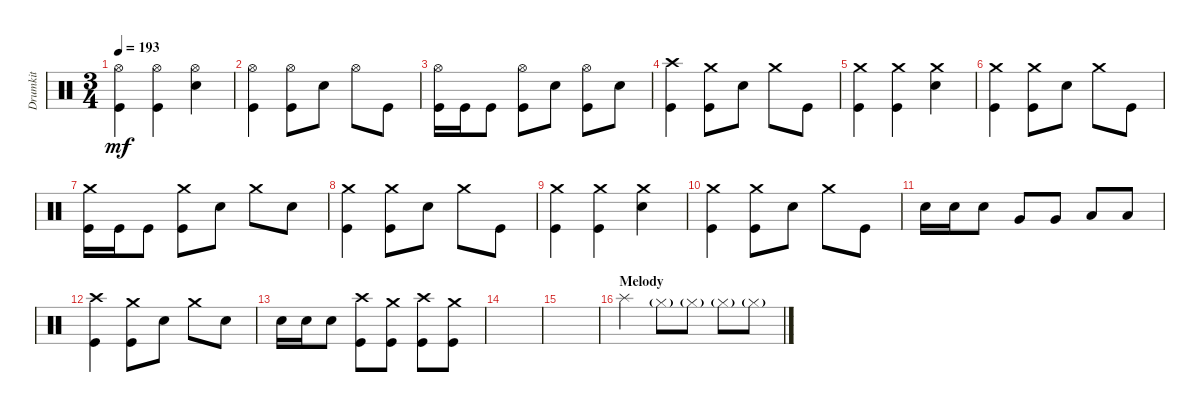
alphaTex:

\track ("Drumkit" "Drumkit") {instrument percussion}
\staff {score}
\articulation defaults
\ts (3 4)
\tempo 193
\clef neutral
\ks c
("Hi-Hat (open)" "Kick (hit)").4{dy mf} ("Hi-Hat (open)" "Kick (hit)").4 ("Hi-Hat (open)" "Snare (hit) 2").4 |
("Kick (hit)" "Hi-Hat (open)").4 ("Hi-Hat (open)" "Kick (hit)").8 "Snare (hit) 2".8 "Hi-Hat (open)".8 "Kick (hit)".8 |
("Hi-Hat (open)" "Kick (hit)").16 "Kick (hit)".16 "Kick (hit)".8 ("Hi-Hat (open)" "Kick (hit)").8 "Snare (hit) 2".8 ("Hi-Hat (open)" "Kick (hit)").8 "Snare (hit) 2".8 |
("Crash high (hit)" "Kick (hit)").4 ("Kick (hit)" "Crash medium (hit)").8 "Snare (hit) 2".8 "Crash medium (hit)".8 "Kick (hit)".8 |
("Kick (hit)" "Crash medium (hit)").4 ("Kick (hit)" "Crash medium (hit)").4 ("Snare (hit) 2" "Crash medium (hit)").4 |
("Kick (hit)" "Crash medium (hit)").4 ("Kick (hit)" "Crash medium (hit)").8 "Snare (hit) 2".8 "Crash medium (hit)".8 "Kick (hit)".8 |
("Kick (hit)" "Crash medium (hit)").16 "Kick (hit)".16 "Kick (hit)".8 ("Kick (hit)" "Crash medium (hit)").8 "Snare (hit) 2".8 "Crash medium (hit)".8 "Snare (hit) 2".8 |
("Kick (hit)" "Crash medium (hit)").4 ("Kick (hit)" "Crash medium (hit)").8 "Snare (hit) 2".8 "Crash medium (hit)".8 "Kick (hit)".8 |
("Kick (hit)" "Crash medium (hit)").4 ("Kick (hit)" "Crash medium (hit)").4 ("Snare (hit) 2" "Crash medium (hit)").4 |
("Kick (hit)" "Crash medium (hit)").4 ("Kick (hit)" "Crash medium (hit)").8 "Snare (hit) 2".8 "Crash medium (hit)".8 "Kick (hit)".8 |
"Snare (hit) 2".16 "Snare (hit) 2".16 "Snare (hit) 2".8 "Very Low Tom (hit)".8 "Very Low Tom (hit)".8 "Low Floor Tom (hit)".8 "Low Floor Tom (hit)".8 |
("Kick (hit)" "Crash high (hit)").4 ("Crash medium (hit)" "Kick (hit)").8 "Snare (hit) 2".8 "Crash medium (hit)".8 "Snare (hit) 2".8 |
"Snare (hit) 2".16 "Snare (hit) 2".16 "Snare (hit) 2".8 ("Kick (hit)" "Crash high (hit)").8 ("Kick (hit)" "Crash medium (hit)").8 ("Kick (hit)" "Crash high (hit)").8 ("Kick (hit)" "Crash medium (hit)").8 |
|
|
\section ("" "Melody")
"Splash (hit)".4 "Hi-Hat (closed)"{g}.8 "Hi-Hat (closed)"{g}.8 "Hi-Hat (closed)"{g}.8 "Hi-Hat (closed)"{g}.8
